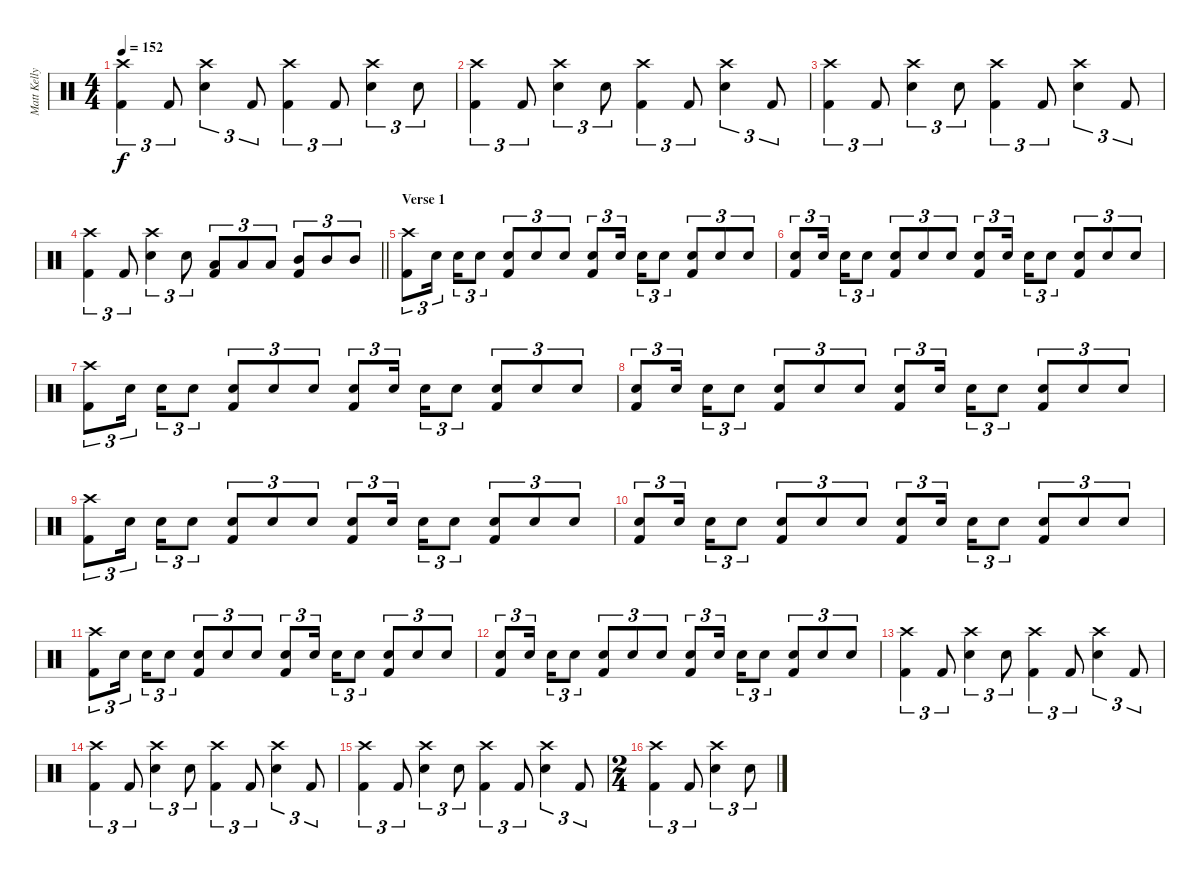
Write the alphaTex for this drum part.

\track ("Matt Kelly (Drums)" "Matt Kelly") {instrument percussion}
\staff {score}
\articulation defaults
\ts (4 4)
\tempo 152
\clef neutral
\ks c
("Crash high (hit)" "Kick (hit) 2").4{tu (3 2) dy f} "Kick (hit) 2".8{tu (3 2)} ("Crash high (hit)" "Electric Snare (hit)").4{tu (3 2)} "Kick (hit) 2".8{tu (3 2)} ("Crash high (hit)" "Kick (hit) 2").4{tu (3 2)} "Kick (hit) 2".8{tu (3 2)} ("Crash high (hit)" "Electric Snare (hit)").4{tu (3 2)} "Electric Snare (hit)".8{tu (3 2)} |
("Crash high (hit)" "Kick (hit) 2").4{tu (3 2)} "Kick (hit) 2".8{tu (3 2)} ("Crash high (hit)" "Electric Snare (hit)").4{tu (3 2)} "Electric Snare (hit)".8{tu (3 2)} ("Crash high (hit)" "Kick (hit) 2").4{tu (3 2)} "Kick (hit) 2".8{tu (3 2)} ("Crash high (hit)" "Electric Snare (hit)").4{tu (3 2)} "Kick (hit) 2".8{tu (3 2)} |
("Crash high (hit)" "Kick (hit) 2").4{tu (3 2)} "Kick (hit) 2".8{tu (3 2)} ("Crash high (hit)" "Electric Snare (hit)").4{tu (3 2)} "Electric Snare (hit)".8{tu (3 2)} ("Crash high (hit)" "Kick (hit) 2").4{tu (3 2)} "Kick (hit) 2".8{tu (3 2)} ("Crash high (hit)" "Electric Snare (hit)").4{tu (3 2)} "Kick (hit) 2".8{tu (3 2)} |
\barLineRight lightlight
("Crash high (hit)" "Kick (hit) 2").4{tu (3 2)} "Kick (hit) 2".8{tu (3 2)} ("Crash high (hit)" "Electric Snare (hit)").4{tu (3 2)} "Electric Snare (hit)".8{tu (3 2)} ("Low Tom (hit)" "Kick (hit) 2").8{tu (3 2)} "Low Tom (hit)".8{tu (3 2)} "Low Tom (hit)".8{tu (3 2)} ("Mid Tom (hit)" "Kick (hit) 2").8{tu (3 2)} "Mid Tom (hit)".8{tu (3 2)} "Mid Tom (hit)".8{tu (3 2)} |
\section ("" "Verse 1")
("Crash high (hit)" "Kick (hit) 2").8{tu (3 2)} "Electric Snare (hit)".16{tu (3 2) beam splitsecondary} "Electric Snare (hit)".16{tu (3 2)} "Electric Snare (hit)".8{tu (3 2)} ("Electric Snare (hit)" "Kick (hit) 2").8{tu (3 2)} "Electric Snare (hit)".8{tu (3 2)} "Electric Snare (hit)".8{tu (3 2)} ("Electric Snare (hit)" "Kick (hit) 2").8{tu (3 2)} "Electric Snare (hit)".16{tu (3 2) beam splitsecondary} "Electric Snare (hit)".16{tu (3 2)} "Electric Snare (hit)".8{tu (3 2)} ("Electric Snare (hit)" "Kick (hit) 2").8{tu (3 2)} "Electric Snare (hit)".8{tu (3 2)} "Electric Snare (hit)".8{tu (3 2)} |
("Electric Snare (hit)" "Kick (hit) 2").8{tu (3 2)} "Electric Snare (hit)".16{tu (3 2) beam splitsecondary} "Electric Snare (hit)".16{tu (3 2)} "Electric Snare (hit)".8{tu (3 2)} ("Electric Snare (hit)" "Kick (hit) 2").8{tu (3 2)} "Electric Snare (hit)".8{tu (3 2)} "Electric Snare (hit)".8{tu (3 2)} ("Electric Snare (hit)" "Kick (hit) 2").8{tu (3 2)} "Electric Snare (hit)".16{tu (3 2) beam splitsecondary} "Electric Snare (hit)".16{tu (3 2)} "Electric Snare (hit)".8{tu (3 2)} ("Electric Snare (hit)" "Kick (hit) 2").8{tu (3 2)} "Electric Snare (hit)".8{tu (3 2)} "Electric Snare (hit)".8{tu (3 2)} |
("Crash high (hit)" "Kick (hit) 2").8{tu (3 2)} "Electric Snare (hit)".16{tu (3 2) beam splitsecondary} "Electric Snare (hit)".16{tu (3 2)} "Electric Snare (hit)".8{tu (3 2)} ("Electric Snare (hit)" "Kick (hit) 2").8{tu (3 2)} "Electric Snare (hit)".8{tu (3 2)} "Electric Snare (hit)".8{tu (3 2)} ("Electric Snare (hit)" "Kick (hit) 2").8{tu (3 2)} "Electric Snare (hit)".16{tu (3 2) beam splitsecondary} "Electric Snare (hit)".16{tu (3 2)} "Electric Snare (hit)".8{tu (3 2)} ("Electric Snare (hit)" "Kick (hit) 2").8{tu (3 2)} "Electric Snare (hit)".8{tu (3 2)} "Electric Snare (hit)".8{tu (3 2)} |
("Electric Snare (hit)" "Kick (hit) 2").8{tu (3 2)} "Electric Snare (hit)".16{tu (3 2) beam splitsecondary} "Electric Snare (hit)".16{tu (3 2)} "Electric Snare (hit)".8{tu (3 2)} ("Electric Snare (hit)" "Kick (hit) 2").8{tu (3 2)} "Electric Snare (hit)".8{tu (3 2)} "Electric Snare (hit)".8{tu (3 2)} ("Electric Snare (hit)" "Kick (hit) 2").8{tu (3 2)} "Electric Snare (hit)".16{tu (3 2) beam splitsecondary} "Electric Snare (hit)".16{tu (3 2)} "Electric Snare (hit)".8{tu (3 2)} ("Electric Snare (hit)" "Kick (hit) 2").8{tu (3 2)} "Electric Snare (hit)".8{tu (3 2)} "Electric Snare (hit)".8{tu (3 2)} |
("Crash high (hit)" "Kick (hit) 2").8{tu (3 2)} "Electric Snare (hit)".16{tu (3 2) beam splitsecondary} "Electric Snare (hit)".16{tu (3 2)} "Electric Snare (hit)".8{tu (3 2)} ("Electric Snare (hit)" "Kick (hit) 2").8{tu (3 2)} "Electric Snare (hit)".8{tu (3 2)} "Electric Snare (hit)".8{tu (3 2)} ("Electric Snare (hit)" "Kick (hit) 2").8{tu (3 2)} "Electric Snare (hit)".16{tu (3 2) beam splitsecondary} "Electric Snare (hit)".16{tu (3 2)} "Electric Snare (hit)".8{tu (3 2)} ("Electric Snare (hit)" "Kick (hit) 2").8{tu (3 2)} "Electric Snare (hit)".8{tu (3 2)} "Electric Snare (hit)".8{tu (3 2)} |
("Electric Snare (hit)" "Kick (hit) 2").8{tu (3 2)} "Electric Snare (hit)".16{tu (3 2) beam splitsecondary} "Electric Snare (hit)".16{tu (3 2)} "Electric Snare (hit)".8{tu (3 2)} ("Electric Snare (hit)" "Kick (hit) 2").8{tu (3 2)} "Electric Snare (hit)".8{tu (3 2)} "Electric Snare (hit)".8{tu (3 2)} ("Electric Snare (hit)" "Kick (hit) 2").8{tu (3 2)} "Electric Snare (hit)".16{tu (3 2) beam splitsecondary} "Electric Snare (hit)".16{tu (3 2)} "Electric Snare (hit)".8{tu (3 2)} ("Electric Snare (hit)" "Kick (hit) 2").8{tu (3 2)} "Electric Snare (hit)".8{tu (3 2)} "Electric Snare (hit)".8{tu (3 2)} |
("Crash high (hit)" "Kick (hit) 2").8{tu (3 2)} "Electric Snare (hit)".16{tu (3 2) beam splitsecondary} "Electric Snare (hit)".16{tu (3 2)} "Electric Snare (hit)".8{tu (3 2)} ("Electric Snare (hit)" "Kick (hit) 2").8{tu (3 2)} "Electric Snare (hit)".8{tu (3 2)} "Electric Snare (hit)".8{tu (3 2)} ("Electric Snare (hit)" "Kick (hit) 2").8{tu (3 2)} "Electric Snare (hit)".16{tu (3 2) beam splitsecondary} "Electric Snare (hit)".16{tu (3 2)} "Electric Snare (hit)".8{tu (3 2)} ("Electric Snare (hit)" "Kick (hit) 2").8{tu (3 2)} "Electric Snare (hit)".8{tu (3 2)} "Electric Snare (hit)".8{tu (3 2)} |
("Electric Snare (hit)" "Kick (hit) 2").8{tu (3 2)} "Electric Snare (hit)".16{tu (3 2) beam splitsecondary} "Electric Snare (hit)".16{tu (3 2)} "Electric Snare (hit)".8{tu (3 2)} ("Electric Snare (hit)" "Kick (hit) 2").8{tu (3 2)} "Electric Snare (hit)".8{tu (3 2)} "Electric Snare (hit)".8{tu (3 2)} ("Electric Snare (hit)" "Kick (hit) 2").8{tu (3 2)} "Electric Snare (hit)".16{tu (3 2) beam splitsecondary} "Electric Snare (hit)".16{tu (3 2)} "Electric Snare (hit)".8{tu (3 2)} ("Electric Snare (hit)" "Kick (hit) 2").8{tu (3 2)} "Electric Snare (hit)".8{tu (3 2)} "Electric Snare (hit)".8{tu (3 2)} |
("Crash high (hit)" "Kick (hit) 2").4{tu (3 2)} "Kick (hit) 2".8{tu (3 2)} ("Crash high (hit)" "Electric Snare (hit)").4{tu (3 2)} "Electric Snare (hit)".8{tu (3 2)} ("Crash high (hit)" "Kick (hit) 2").4{tu (3 2)} "Kick (hit) 2".8{tu (3 2)} ("Crash high (hit)" "Electric Snare (hit)").4{tu (3 2)} "Kick (hit) 2".8{tu (3 2)} |
("Crash high (hit)" "Kick (hit) 2").4{tu (3 2)} "Kick (hit) 2".8{tu (3 2)} ("Crash high (hit)" "Electric Snare (hit)").4{tu (3 2)} "Electric Snare (hit)".8{tu (3 2)} ("Crash high (hit)" "Kick (hit) 2").4{tu (3 2)} "Kick (hit) 2".8{tu (3 2)} ("Crash high (hit)" "Electric Snare (hit)").4{tu (3 2)} "Kick (hit) 2".8{tu (3 2)} |
("Crash high (hit)" "Kick (hit) 2").4{tu (3 2)} "Kick (hit) 2".8{tu (3 2)} ("Crash high (hit)" "Electric Snare (hit)").4{tu (3 2)} "Electric Snare (hit)".8{tu (3 2)} ("Crash high (hit)" "Kick (hit) 2").4{tu (3 2)} "Kick (hit) 2".8{tu (3 2)} ("Crash high (hit)" "Electric Snare (hit)").4{tu (3 2)} "Kick (hit) 2".8{tu (3 2)} |
\ts (2 4)
("Crash high (hit)" "Kick (hit) 2").4{tu (3 2)} "Kick (hit) 2".8{tu (3 2)} ("Crash high (hit)" "Electric Snare (hit)").4{tu (3 2)} "Electric Snare (hit)".8{tu (3 2)}
